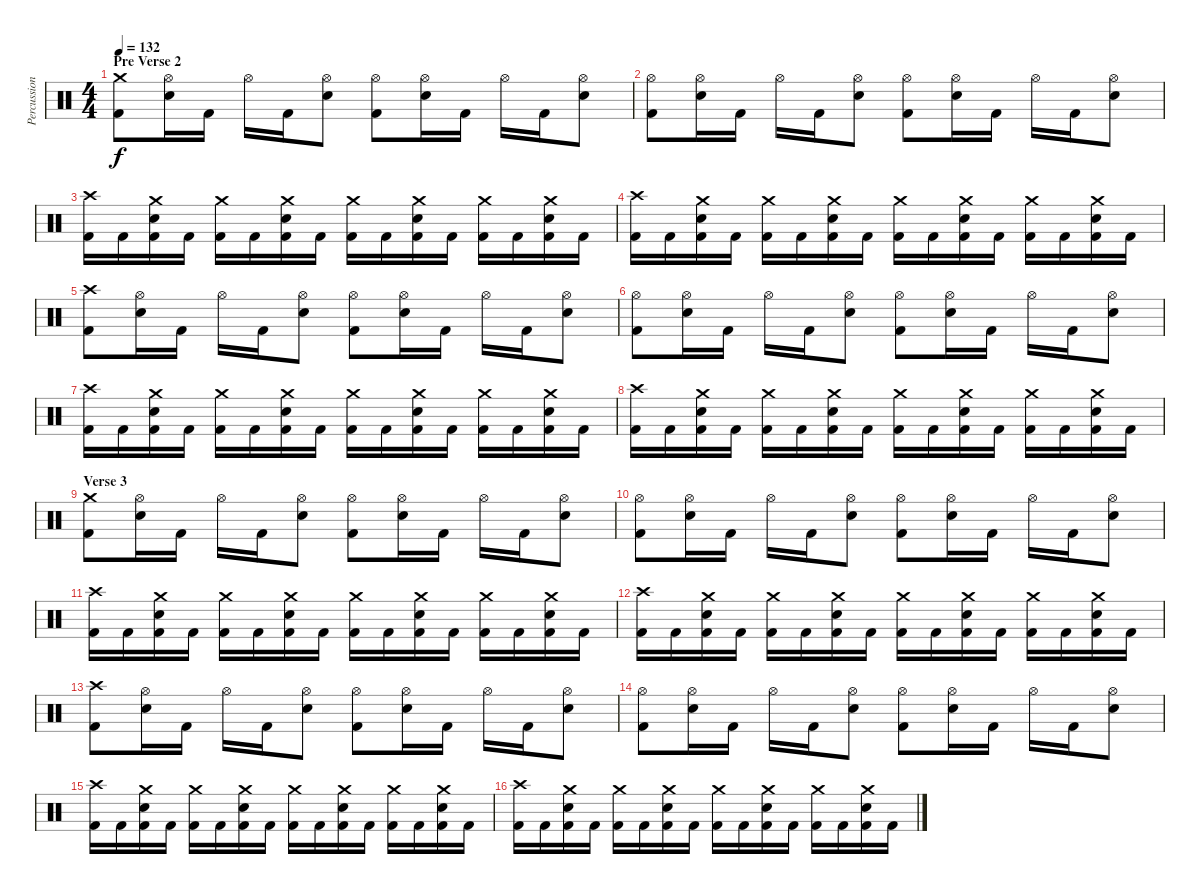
\track ("Percussion" "Percussion") {instrument percussion}
\staff {score}
\articulation defaults
\ts (4 4)
\section ("" "Pre Verse 2")
\tempo 132
\clef neutral
\ks c
("Crash medium (hit)" "Kick (hit) 2").8{dy f} ("Hi-Hat (open)" "Electric Snare (hit)").16 "Kick (hit) 2".16 "Hi-Hat (open)".16 "Kick (hit) 2".16 ("Hi-Hat (open)" "Electric Snare (hit)").8 ("Hi-Hat (open)" "Kick (hit) 2").8 ("Hi-Hat (open)" "Electric Snare (hit)").16 "Kick (hit) 2".16 "Hi-Hat (open)".16 "Kick (hit) 2".16 ("Hi-Hat (open)" "Electric Snare (hit)").8 |
("Hi-Hat (open)" "Kick (hit) 2").8 ("Hi-Hat (open)" "Electric Snare (hit)").16 "Kick (hit) 2".16 "Hi-Hat (open)".16 "Kick (hit) 2".16 ("Hi-Hat (open)" "Electric Snare (hit)").8 ("Hi-Hat (open)" "Kick (hit) 2").8 ("Hi-Hat (open)" "Electric Snare (hit)").16 "Kick (hit) 2".16 "Hi-Hat (open)".16 "Kick (hit) 2".16 ("Hi-Hat (open)" "Electric Snare (hit)").8 |
("Crash high (hit)" "Kick (hit) 2").16 "Kick (hit) 2".16 ("Crash medium (hit)" "Electric Snare (hit)" "Kick (hit) 2").16 "Kick (hit) 2".16 ("Crash medium (hit)" "Kick (hit) 2").16 "Kick (hit) 2".16 ("Crash medium (hit)" "Electric Snare (hit)" "Kick (hit) 2").16 "Kick (hit) 2".16 ("Crash medium (hit)" "Kick (hit) 2").16 "Kick (hit) 2".16 ("Crash medium (hit)" "Electric Snare (hit)" "Kick (hit) 2").16 "Kick (hit) 2".16 ("Crash medium (hit)" "Kick (hit) 2").16 "Kick (hit) 2".16 ("Crash medium (hit)" "Electric Snare (hit)" "Kick (hit) 2").16 "Kick (hit) 2".16 |
("Crash high (hit)" "Kick (hit) 2").16 "Kick (hit) 2".16 ("Crash medium (hit)" "Electric Snare (hit)" "Kick (hit) 2").16 "Kick (hit) 2".16 ("Crash medium (hit)" "Kick (hit) 2").16 "Kick (hit) 2".16 ("Crash medium (hit)" "Electric Snare (hit)" "Kick (hit) 2").16 "Kick (hit) 2".16 ("Crash medium (hit)" "Kick (hit) 2").16 "Kick (hit) 2".16 ("Crash medium (hit)" "Electric Snare (hit)" "Kick (hit) 2").16 "Kick (hit) 2".16 ("Crash medium (hit)" "Kick (hit) 2").16 "Kick (hit) 2".16 ("Crash medium (hit)" "Electric Snare (hit)" "Kick (hit) 2").16 "Kick (hit) 2".16 |
("Crash high (hit)" "Kick (hit) 2").8 ("Hi-Hat (open)" "Electric Snare (hit)").16 "Kick (hit) 2".16 "Hi-Hat (open)".16 "Kick (hit) 2".16 ("Hi-Hat (open)" "Electric Snare (hit)").8 ("Hi-Hat (open)" "Kick (hit) 2").8 ("Hi-Hat (open)" "Electric Snare (hit)").16 "Kick (hit) 2".16 "Hi-Hat (open)".16 "Kick (hit) 2".16 ("Hi-Hat (open)" "Electric Snare (hit)").8 |
("Hi-Hat (open)" "Kick (hit) 2").8 ("Hi-Hat (open)" "Electric Snare (hit)").16 "Kick (hit) 2".16 "Hi-Hat (open)".16 "Kick (hit) 2".16 ("Hi-Hat (open)" "Electric Snare (hit)").8 ("Hi-Hat (open)" "Kick (hit) 2").8 ("Hi-Hat (open)" "Electric Snare (hit)").16 "Kick (hit) 2".16 "Hi-Hat (open)".16 "Kick (hit) 2".16 ("Hi-Hat (open)" "Electric Snare (hit)").8 |
("Crash high (hit)" "Kick (hit) 2").16 "Kick (hit) 2".16 ("Crash medium (hit)" "Electric Snare (hit)" "Kick (hit) 2").16 "Kick (hit) 2".16 ("Crash medium (hit)" "Kick (hit) 2").16 "Kick (hit) 2".16 ("Crash medium (hit)" "Electric Snare (hit)" "Kick (hit) 2").16 "Kick (hit) 2".16 ("Crash medium (hit)" "Kick (hit) 2").16 "Kick (hit) 2".16 ("Crash medium (hit)" "Electric Snare (hit)" "Kick (hit) 2").16 "Kick (hit) 2".16 ("Crash medium (hit)" "Kick (hit) 2").16 "Kick (hit) 2".16 ("Crash medium (hit)" "Electric Snare (hit)" "Kick (hit) 2").16 "Kick (hit) 2".16 |
("Crash high (hit)" "Kick (hit) 2").16 "Kick (hit) 2".16 ("Crash medium (hit)" "Electric Snare (hit)" "Kick (hit) 2").16 "Kick (hit) 2".16 ("Crash medium (hit)" "Kick (hit) 2").16 "Kick (hit) 2".16 ("Crash medium (hit)" "Electric Snare (hit)" "Kick (hit) 2").16 "Kick (hit) 2".16 ("Crash medium (hit)" "Kick (hit) 2").16 "Kick (hit) 2".16 ("Crash medium (hit)" "Electric Snare (hit)" "Kick (hit) 2").16 "Kick (hit) 2".16 ("Crash medium (hit)" "Kick (hit) 2").16 "Kick (hit) 2".16 ("Crash medium (hit)" "Electric Snare (hit)" "Kick (hit) 2").16 "Kick (hit) 2".16 |
\section ("" "Verse 3")
("Crash medium (hit)" "Kick (hit) 2").8 ("Hi-Hat (open)" "Electric Snare (hit)").16 "Kick (hit) 2".16 "Hi-Hat (open)".16 "Kick (hit) 2".16 ("Hi-Hat (open)" "Electric Snare (hit)").8 ("Hi-Hat (open)" "Kick (hit) 2").8 ("Hi-Hat (open)" "Electric Snare (hit)").16 "Kick (hit) 2".16 "Hi-Hat (open)".16 "Kick (hit) 2".16 ("Hi-Hat (open)" "Electric Snare (hit)").8 |
("Hi-Hat (open)" "Kick (hit) 2").8 ("Hi-Hat (open)" "Electric Snare (hit)").16 "Kick (hit) 2".16 "Hi-Hat (open)".16 "Kick (hit) 2".16 ("Hi-Hat (open)" "Electric Snare (hit)").8 ("Hi-Hat (open)" "Kick (hit) 2").8 ("Hi-Hat (open)" "Electric Snare (hit)").16 "Kick (hit) 2".16 "Hi-Hat (open)".16 "Kick (hit) 2".16 ("Hi-Hat (open)" "Electric Snare (hit)").8 |
("Crash high (hit)" "Kick (hit) 2").16 "Kick (hit) 2".16 ("Crash medium (hit)" "Electric Snare (hit)" "Kick (hit) 2").16 "Kick (hit) 2".16 ("Crash medium (hit)" "Kick (hit) 2").16 "Kick (hit) 2".16 ("Crash medium (hit)" "Electric Snare (hit)" "Kick (hit) 2").16 "Kick (hit) 2".16 ("Crash medium (hit)" "Kick (hit) 2").16 "Kick (hit) 2".16 ("Crash medium (hit)" "Electric Snare (hit)" "Kick (hit) 2").16 "Kick (hit) 2".16 ("Crash medium (hit)" "Kick (hit) 2").16 "Kick (hit) 2".16 ("Crash medium (hit)" "Electric Snare (hit)" "Kick (hit) 2").16 "Kick (hit) 2".16 |
("Crash high (hit)" "Kick (hit) 2").16 "Kick (hit) 2".16 ("Crash medium (hit)" "Electric Snare (hit)" "Kick (hit) 2").16 "Kick (hit) 2".16 ("Crash medium (hit)" "Kick (hit) 2").16 "Kick (hit) 2".16 ("Crash medium (hit)" "Electric Snare (hit)" "Kick (hit) 2").16 "Kick (hit) 2".16 ("Crash medium (hit)" "Kick (hit) 2").16 "Kick (hit) 2".16 ("Crash medium (hit)" "Electric Snare (hit)" "Kick (hit) 2").16 "Kick (hit) 2".16 ("Crash medium (hit)" "Kick (hit) 2").16 "Kick (hit) 2".16 ("Crash medium (hit)" "Electric Snare (hit)" "Kick (hit) 2").16 "Kick (hit) 2".16 |
("Crash high (hit)" "Kick (hit) 2").8 ("Hi-Hat (open)" "Electric Snare (hit)").16 "Kick (hit) 2".16 "Hi-Hat (open)".16 "Kick (hit) 2".16 ("Hi-Hat (open)" "Electric Snare (hit)").8 ("Hi-Hat (open)" "Kick (hit) 2").8 ("Hi-Hat (open)" "Electric Snare (hit)").16 "Kick (hit) 2".16 "Hi-Hat (open)".16 "Kick (hit) 2".16 ("Hi-Hat (open)" "Electric Snare (hit)").8 |
("Hi-Hat (open)" "Kick (hit) 2").8 ("Hi-Hat (open)" "Electric Snare (hit)").16 "Kick (hit) 2".16 "Hi-Hat (open)".16 "Kick (hit) 2".16 ("Hi-Hat (open)" "Electric Snare (hit)").8 ("Hi-Hat (open)" "Kick (hit) 2").8 ("Hi-Hat (open)" "Electric Snare (hit)").16 "Kick (hit) 2".16 "Hi-Hat (open)".16 "Kick (hit) 2".16 ("Hi-Hat (open)" "Electric Snare (hit)").8 |
("Crash high (hit)" "Kick (hit) 2").16 "Kick (hit) 2".16 ("Crash medium (hit)" "Electric Snare (hit)" "Kick (hit) 2").16 "Kick (hit) 2".16 ("Crash medium (hit)" "Kick (hit) 2").16 "Kick (hit) 2".16 ("Crash medium (hit)" "Electric Snare (hit)" "Kick (hit) 2").16 "Kick (hit) 2".16 ("Crash medium (hit)" "Kick (hit) 2").16 "Kick (hit) 2".16 ("Crash medium (hit)" "Electric Snare (hit)" "Kick (hit) 2").16 "Kick (hit) 2".16 ("Crash medium (hit)" "Kick (hit) 2").16 "Kick (hit) 2".16 ("Crash medium (hit)" "Electric Snare (hit)" "Kick (hit) 2").16 "Kick (hit) 2".16 |
("Crash high (hit)" "Kick (hit) 2").16 "Kick (hit) 2".16 ("Crash medium (hit)" "Electric Snare (hit)" "Kick (hit) 2").16 "Kick (hit) 2".16 ("Crash medium (hit)" "Kick (hit) 2").16 "Kick (hit) 2".16 ("Crash medium (hit)" "Electric Snare (hit)" "Kick (hit) 2").16 "Kick (hit) 2".16 ("Crash medium (hit)" "Kick (hit) 2").16 "Kick (hit) 2".16 ("Crash medium (hit)" "Electric Snare (hit)" "Kick (hit) 2").16 "Kick (hit) 2".16 ("Crash medium (hit)" "Kick (hit) 2").16 "Kick (hit) 2".16 ("Crash medium (hit)" "Electric Snare (hit)" "Kick (hit) 2").16 "Kick (hit) 2".16
